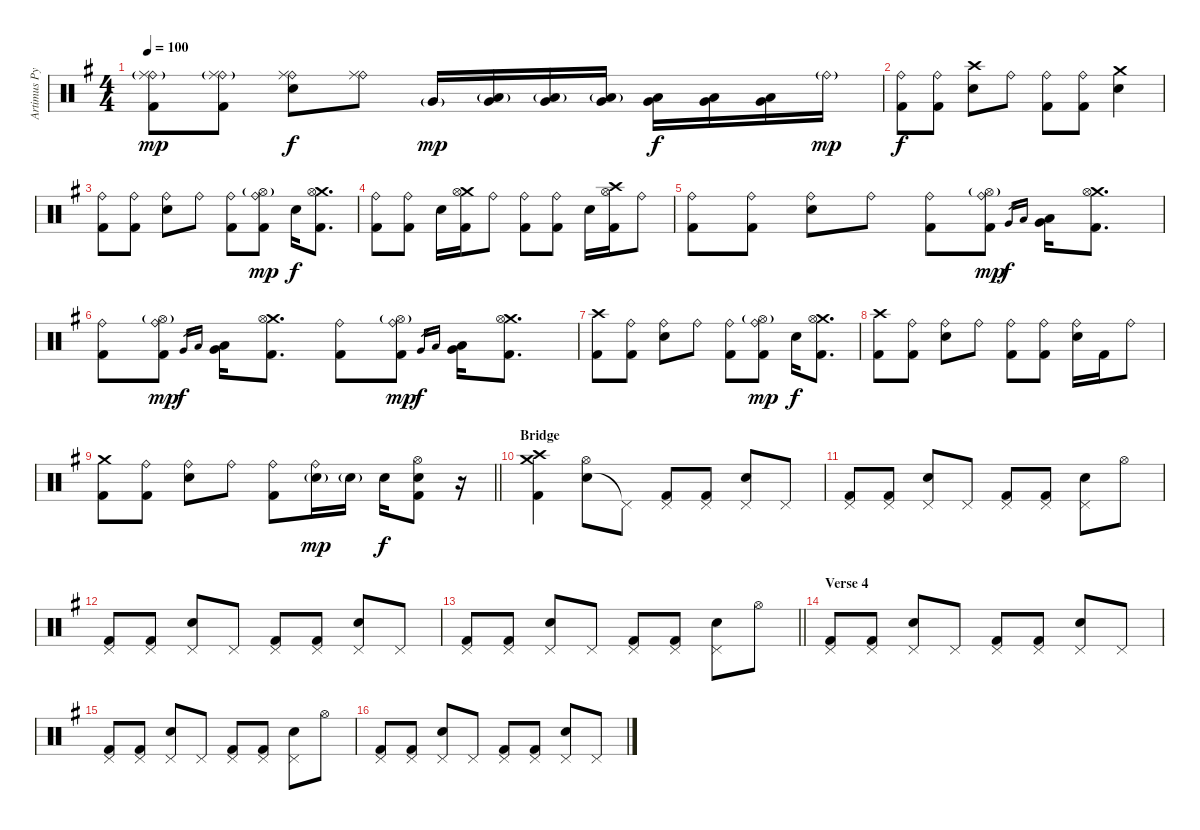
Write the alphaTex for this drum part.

\track ("Artimus Pyle" "Artimus Py") {instrument percussion}
\staff {score}
\articulation defaults
\ts (4 4)
\tempo 100
\clef neutral
\ks g
("Ride (bell)" "Ride (middle)"{g} "Kick (hit) 2").8{dy mp} ("Ride (bell)" "Ride (middle)"{g} "Kick (hit) 2").8 ("Ride (bell)" "Ride (middle)" "Snare (hit) 2").8{dy f} ("Ride (bell)" "Ride (middle)").8 "Very Low Tom (hit)"{g}.16{dy mp} ("Low Floor Tom (hit)"{g} "Very Low Tom (hit)").16 ("Low Floor Tom (hit)"{g} "Very Low Tom (hit)").16 ("Low Floor Tom (hit)"{g} "Very Low Tom (hit)").16 ("Low Floor Tom (hit)" "Very Low Tom (hit)").16{dy f} ("Low Floor Tom (hit)" "Very Low Tom (hit)").16 ("Low Floor Tom (hit)" "Very Low Tom (hit)").16 "Ride (bell)"{g}.16{dy mp} |
("Ride (bell)" "Kick (hit) 2").8{dy f} ("Ride (bell)" "Kick (hit) 2").8 ("Crash high (hit)" "Snare (hit) 2").8 "Ride (bell)".8 ("Ride (bell)" "Kick (hit) 2").8 ("Ride (bell)" "Kick (hit) 2").8 ("Crash medium (hit)" "Snare (hit) 2").4 |
("Ride (bell)" "Kick (hit) 2").8 ("Ride (bell)" "Kick (hit) 2").8 ("Ride (bell)" "Snare (hit) 2").8 "Ride (bell)".8 ("Ride (bell)" "Kick (hit) 2").8 ("Ride (bell)" "Hi-Hat (open)"{g} "Kick (hit) 2").8{dy mp} "Snare (hit) 2".16{dy f} ("Crash medium (hit)" "Hi-Hat (open)" "Kick (hit) 2").8{d} |
("Ride (bell)" "Kick (hit) 2").8 ("Ride (bell)" "Kick (hit) 2").8 "Snare (hit) 2".16 ("Crash medium (hit)" "Hi-Hat (open)" "Kick (hit) 2").16 "Ride (bell)".8 ("Ride (bell)" "Kick (hit) 2").8 ("Ride (bell)" "Kick (hit) 2").8 "Snare (hit) 2".16 ("Crash high (hit)" "Hi-Hat (open)" "Kick (hit) 2").16 "Ride (bell)".8 |
("Ride (bell)" "Kick (hit) 2").8 ("Ride (bell)" "Kick (hit) 2").8 ("Ride (bell)" "Snare (hit) 2").8 "Ride (bell)".8 ("Ride (bell)" "Kick (hit) 2").8 ("Ride (bell)" "Hi-Hat (open)"{g} "Kick (hit) 2").8{dy mp} "Very Low Tom (hit)".16{gr dy f} "Low Floor Tom (hit)".16{gr} ("Very Low Tom (hit)" "Low Floor Tom (hit)").16 ("Crash medium (hit)" "Hi-Hat (open)" "Kick (hit) 2").8{d} |
("Ride (bell)" "Kick (hit) 2").8 ("Ride (bell)" "Hi-Hat (open)"{g} "Kick (hit) 2").8{dy mp} "Very Low Tom (hit)".16{gr dy f} "Low Floor Tom (hit)".16{gr} ("Very Low Tom (hit)" "Low Floor Tom (hit)").16 ("Crash medium (hit)" "Hi-Hat (open)" "Kick (hit) 2").8{d} ("Ride (bell)" "Kick (hit) 2").8 ("Ride (bell)" "Hi-Hat (open)"{g} "Kick (hit) 2").8{dy mp} "Very Low Tom (hit)".16{gr dy f} "Low Floor Tom (hit)".16{gr} ("Very Low Tom (hit)" "Low Floor Tom (hit)").16 ("Crash medium (hit)" "Hi-Hat (open)" "Kick (hit) 2").8{d} |
("Crash high (hit)" "Kick (hit) 2").8 ("Ride (bell)" "Kick (hit) 2").8 ("Ride (bell)" "Snare (hit) 2").8 "Ride (bell)".8 ("Ride (bell)" "Kick (hit) 2").8 ("Ride (bell)" "Hi-Hat (open)"{g} "Kick (hit) 2").8{dy mp} "Snare (hit) 2".16{dy f} ("Crash medium (hit)" "Hi-Hat (open)" "Kick (hit) 2").8{d} |
("Crash high (hit)" "Kick (hit) 2").8 ("Ride (bell)" "Kick (hit) 2").8 ("Ride (bell)" "Snare (hit) 2").8 "Ride (bell)".8 ("Ride (bell)" "Kick (hit) 2").8 ("Ride (bell)" "Kick (hit) 2").8 ("Ride (bell)" "Snare (hit) 2").16 "Kick (hit) 2".16 "Ride (bell)".8 |
\barLineRight lightlight
("Crash medium (hit)" "Kick (hit) 2").8 ("Ride (bell)" "Kick (hit) 2").8 ("Ride (bell)" "Snare (hit) 2").8 "Ride (bell)".8 ("Ride (bell)" "Kick (hit) 2").8 ("Ride (bell)" "Snare (hit) 2"{g}).16{dy mp} "Snare (hit) 2"{g}.16 "Snare (hit) 2".16{dy f} ("Snare (hit) 2" "Hi-Hat (open)" "Kick (hit) 2").8 r.16 |
\section ("" "Bridge")
("Crash medium (hit)" "Crash high (hit)" "Kick (hit) 2").4 ("Snare (hit) 2" "Hi-Hat (open)").8 "Pedal Hi-Hat (hit)"{t}.8 ("Pedal Hi-Hat (hit)" "Kick (hit) 2").8 ("Pedal Hi-Hat (hit)" "Kick (hit) 2").8 ("Snare (hit) 2" "Pedal Hi-Hat (hit)").8 "Pedal Hi-Hat (hit)".8 |
("Pedal Hi-Hat (hit)" "Kick (hit) 2").8 ("Pedal Hi-Hat (hit)" "Kick (hit) 2").8 ("Snare (hit) 2" "Pedal Hi-Hat (hit)").8 "Pedal Hi-Hat (hit)".8 ("Pedal Hi-Hat (hit)" "Kick (hit) 2").8 ("Pedal Hi-Hat (hit)" "Kick (hit) 2").8 ("Snare (hit) 2" "Pedal Hi-Hat (hit)").8 "Hi-Hat (open)".8 |
("Pedal Hi-Hat (hit)" "Kick (hit) 2").8 ("Pedal Hi-Hat (hit)" "Kick (hit) 2").8 ("Snare (hit) 2" "Pedal Hi-Hat (hit)").8 "Pedal Hi-Hat (hit)".8 ("Pedal Hi-Hat (hit)" "Kick (hit) 2").8 ("Pedal Hi-Hat (hit)" "Kick (hit) 2").8 ("Snare (hit) 2" "Pedal Hi-Hat (hit)").8 "Pedal Hi-Hat (hit)".8 |
\barLineRight lightlight
("Pedal Hi-Hat (hit)" "Kick (hit) 2").8 ("Pedal Hi-Hat (hit)" "Kick (hit) 2").8 ("Snare (hit) 2" "Pedal Hi-Hat (hit)").8 "Pedal Hi-Hat (hit)".8 ("Pedal Hi-Hat (hit)" "Kick (hit) 2").8 ("Pedal Hi-Hat (hit)" "Kick (hit) 2").8 ("Snare (hit) 2" "Pedal Hi-Hat (hit)").8 "Hi-Hat (open)".8 |
\section ("" "Verse 4")
("Pedal Hi-Hat (hit)" "Kick (hit) 2").8 ("Pedal Hi-Hat (hit)" "Kick (hit) 2").8 ("Snare (hit) 2" "Pedal Hi-Hat (hit)").8 "Pedal Hi-Hat (hit)".8 ("Pedal Hi-Hat (hit)" "Kick (hit) 2").8 ("Pedal Hi-Hat (hit)" "Kick (hit) 2").8 ("Snare (hit) 2" "Pedal Hi-Hat (hit)").8 "Pedal Hi-Hat (hit)".8 |
("Pedal Hi-Hat (hit)" "Kick (hit) 2").8 ("Pedal Hi-Hat (hit)" "Kick (hit) 2").8 ("Snare (hit) 2" "Pedal Hi-Hat (hit)").8 "Pedal Hi-Hat (hit)".8 ("Pedal Hi-Hat (hit)" "Kick (hit) 2").8 ("Pedal Hi-Hat (hit)" "Kick (hit) 2").8 ("Snare (hit) 2" "Pedal Hi-Hat (hit)").8 "Hi-Hat (open)".8 |
("Pedal Hi-Hat (hit)" "Kick (hit) 2").8 ("Pedal Hi-Hat (hit)" "Kick (hit) 2").8 ("Snare (hit) 2" "Pedal Hi-Hat (hit)").8 "Pedal Hi-Hat (hit)".8 ("Pedal Hi-Hat (hit)" "Kick (hit) 2").8 ("Pedal Hi-Hat (hit)" "Kick (hit) 2").8 ("Snare (hit) 2" "Pedal Hi-Hat (hit)").8 "Pedal Hi-Hat (hit)".8
